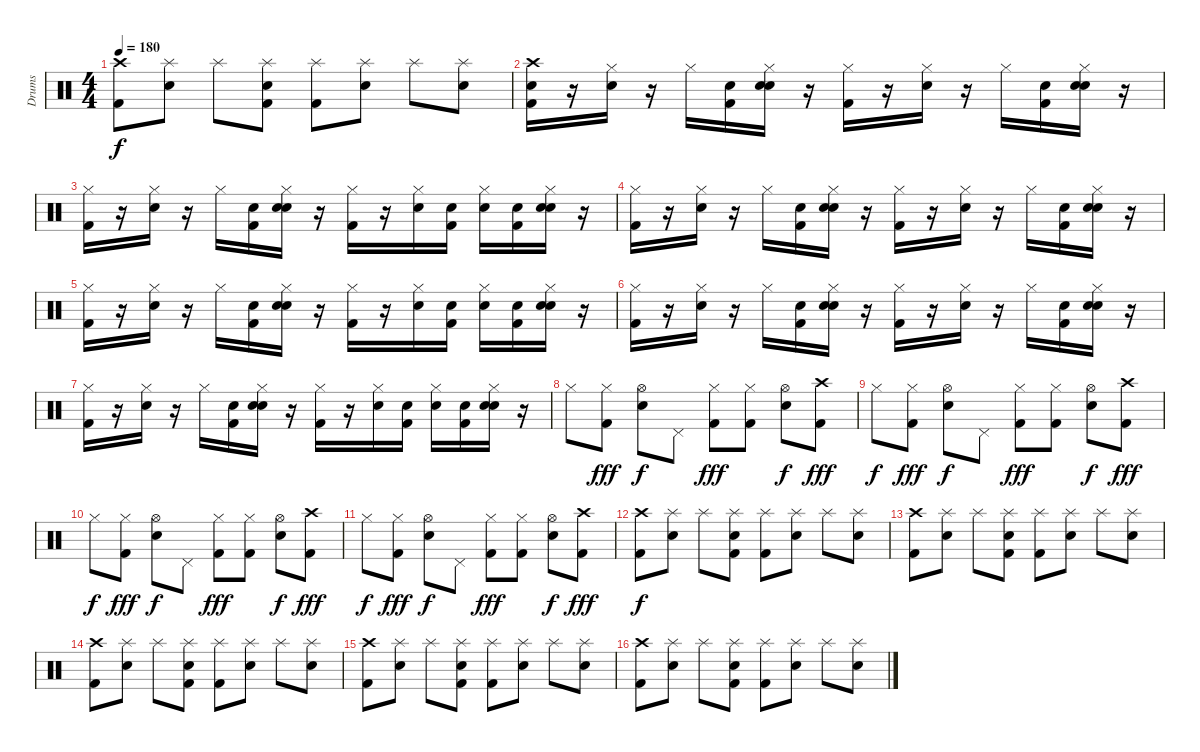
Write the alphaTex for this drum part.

\track ("Drums" "Drums") {instrument percussion}
\staff {score}
\articulation defaults
\ts (4 4)
\tempo 180
\clef neutral
\ks c
("Crash high (hit)" "Kick (hit) 2").8{dy f} ("Splash (hit)" "Snare (hit) 2").8 "Splash (hit)".8 ("Splash (hit)" "Snare (hit) 2" "Kick (hit) 2").8 ("Splash (hit)" "Kick (hit) 2").8 ("Splash (hit)" "Snare (hit) 2").8 "Splash (hit)".8 ("Splash (hit)" "Snare (hit) 2").8 |
("Snare (hit)" "Kick (hit) 2" "Crash high (hit)").16 r.16 ("Snare (hit) 2" "Hi-Hat (closed)").16 r.16 "Hi-Hat (closed)".16 ("Snare (hit)" "Kick (hit) 2").16 ("Snare (hit)" "Snare (hit) 2" "Hi-Hat (closed)").16 r.16 ("Kick (hit) 2" "Hi-Hat (closed)").16 r.16 ("Snare (hit) 2" "Hi-Hat (closed)").16 r.16 "Hi-Hat (closed)".16 ("Snare (hit)" "Kick (hit) 2").16 ("Snare (hit)" "Snare (hit) 2" "Hi-Hat (closed)").16 r.16 |
("Kick (hit) 2" "Hi-Hat (closed)").16 r.16 ("Snare (hit) 2" "Hi-Hat (closed)").16 r.16 "Hi-Hat (closed)".16 ("Snare (hit)" "Kick (hit) 2").16 ("Snare (hit)" "Snare (hit) 2" "Hi-Hat (closed)").16 r.16 ("Kick (hit) 2" "Hi-Hat (closed)").16 r.16 ("Snare (hit) 2" "Hi-Hat (closed)").16 ("Snare (hit)" "Kick (hit) 2").16 ("Snare (hit)" "Hi-Hat (closed)").16 ("Snare (hit)" "Kick (hit) 2").16 ("Snare (hit)" "Snare (hit) 2" "Hi-Hat (closed)").16 r.16 |
("Kick (hit) 2" "Hi-Hat (closed)").16 r.16 ("Snare (hit) 2" "Hi-Hat (closed)").16 r.16 "Hi-Hat (closed)".16 ("Snare (hit)" "Kick (hit) 2").16 ("Snare (hit)" "Snare (hit) 2" "Hi-Hat (closed)").16 r.16 ("Kick (hit) 2" "Hi-Hat (closed)").16 r.16 ("Snare (hit) 2" "Hi-Hat (closed)").16 r.16 "Hi-Hat (closed)".16 ("Snare (hit)" "Kick (hit) 2").16 ("Snare (hit)" "Snare (hit) 2" "Hi-Hat (closed)").16 r.16 |
("Hi-Hat (closed)" "Kick (hit) 2").16 r.16 ("Snare (hit) 2" "Hi-Hat (closed)").16 r.16 "Hi-Hat (closed)".16 ("Snare (hit)" "Kick (hit) 2").16 ("Snare (hit)" "Snare (hit) 2" "Hi-Hat (closed)").16 r.16 ("Kick (hit) 2" "Hi-Hat (closed)").16 r.16 ("Snare (hit) 2" "Hi-Hat (closed)").16 ("Snare (hit)" "Kick (hit) 2").16 ("Snare (hit)" "Hi-Hat (closed)").16 ("Snare (hit)" "Kick (hit) 2").16 ("Snare (hit)" "Snare (hit) 2" "Hi-Hat (closed)").16 r.16 |
("Kick (hit) 2" "Hi-Hat (closed)").16 r.16 ("Snare (hit) 2" "Hi-Hat (closed)").16 r.16 "Hi-Hat (closed)".16 ("Snare (hit)" "Kick (hit) 2").16 ("Snare (hit)" "Snare (hit) 2" "Hi-Hat (closed)").16 r.16 ("Kick (hit) 2" "Hi-Hat (closed)").16 r.16 ("Snare (hit) 2" "Hi-Hat (closed)").16 r.16 "Hi-Hat (closed)".16 ("Snare (hit)" "Kick (hit) 2").16 ("Snare (hit)" "Snare (hit) 2" "Hi-Hat (closed)").16 r.16 |
("Hi-Hat (closed)" "Kick (hit) 2").16 r.16 ("Snare (hit) 2" "Hi-Hat (closed)").16 r.16 "Hi-Hat (closed)".16 ("Snare (hit)" "Kick (hit) 2").16 ("Snare (hit)" "Snare (hit) 2" "Hi-Hat (closed)").16 r.16 ("Kick (hit) 2" "Hi-Hat (closed)").16 r.16 ("Snare (hit) 2" "Hi-Hat (closed)").16 ("Snare (hit)" "Kick (hit) 2").16 ("Snare (hit)" "Hi-Hat (closed)").16 ("Snare (hit)" "Kick (hit) 2").16 ("Snare (hit)" "Snare (hit) 2" "Hi-Hat (closed)").16 r.16 |
"Hi-Hat (closed)".8 ("Hi-Hat (closed)" "Kick (hit) 2").8{dy fff} ("Hi-Hat (open)" "Electric Snare (hit)").8{dy f} "Pedal Hi-Hat (hit)".8 ("Hi-Hat (closed)" "Kick (hit) 2").8{dy fff} ("Hi-Hat (closed)" "Kick (hit) 2").8 ("Hi-Hat (open)" "Electric Snare (hit)").8{dy f} ("Crash high (hit)" "Kick (hit) 2").8{dy fff} |
"Hi-Hat (closed)".8{dy f} ("Hi-Hat (closed)" "Kick (hit) 2").8{dy fff} ("Hi-Hat (open)" "Electric Snare (hit)").8{dy f} "Pedal Hi-Hat (hit)".8 ("Hi-Hat (closed)" "Kick (hit) 2").8{dy fff} ("Hi-Hat (closed)" "Kick (hit) 2").8 ("Hi-Hat (open)" "Electric Snare (hit)").8{dy f} ("Crash high (hit)" "Kick (hit) 2").8{dy fff} |
"Hi-Hat (closed)".8{dy f} ("Hi-Hat (closed)" "Kick (hit) 2").8{dy fff} ("Hi-Hat (open)" "Electric Snare (hit)").8{dy f} "Pedal Hi-Hat (hit)".8 ("Hi-Hat (closed)" "Kick (hit) 2").8{dy fff} ("Hi-Hat (closed)" "Kick (hit) 2").8 ("Hi-Hat (open)" "Electric Snare (hit)").8{dy f} ("Crash high (hit)" "Kick (hit) 2").8{dy fff} |
"Hi-Hat (closed)".8{dy f} ("Hi-Hat (closed)" "Kick (hit) 2").8{dy fff} ("Hi-Hat (open)" "Electric Snare (hit)").8{dy f} "Pedal Hi-Hat (hit)".8 ("Hi-Hat (closed)" "Kick (hit) 2").8{dy fff} ("Hi-Hat (closed)" "Kick (hit) 2").8 ("Hi-Hat (open)" "Electric Snare (hit)").8{dy f} ("Crash high (hit)" "Kick (hit) 2").8{dy fff} |
("Crash high (hit)" "Kick (hit) 2").8{dy f} ("Splash (hit)" "Snare (hit) 2").8 "Splash (hit)".8 ("Splash (hit)" "Snare (hit) 2" "Kick (hit) 2").8 ("Splash (hit)" "Kick (hit) 2").8 ("Splash (hit)" "Snare (hit) 2").8 "Splash (hit)".8 ("Splash (hit)" "Snare (hit) 2").8 |
("Crash high (hit)" "Kick (hit) 2").8 ("Splash (hit)" "Snare (hit) 2").8 "Splash (hit)".8 ("Splash (hit)" "Snare (hit) 2" "Kick (hit) 2").8 ("Splash (hit)" "Kick (hit) 2").8 ("Splash (hit)" "Snare (hit) 2").8 "Splash (hit)".8 ("Splash (hit)" "Snare (hit) 2").8 |
("Crash high (hit)" "Kick (hit) 2").8 ("Splash (hit)" "Snare (hit) 2").8 "Splash (hit)".8 ("Splash (hit)" "Snare (hit) 2" "Kick (hit) 2").8 ("Splash (hit)" "Kick (hit) 2").8 ("Splash (hit)" "Snare (hit) 2").8 "Splash (hit)".8 ("Splash (hit)" "Snare (hit) 2").8 |
("Crash high (hit)" "Kick (hit) 2").8 ("Splash (hit)" "Snare (hit) 2").8 "Splash (hit)".8 ("Splash (hit)" "Snare (hit) 2" "Kick (hit) 2").8 ("Splash (hit)" "Kick (hit) 2").8 ("Splash (hit)" "Snare (hit) 2").8 "Splash (hit)".8 ("Splash (hit)" "Snare (hit) 2").8 |
("Crash high (hit)" "Kick (hit) 2").8 ("Splash (hit)" "Snare (hit) 2").8 "Splash (hit)".8 ("Splash (hit)" "Snare (hit) 2" "Kick (hit) 2").8 ("Splash (hit)" "Kick (hit) 2").8 ("Splash (hit)" "Snare (hit) 2").8 "Splash (hit)".8 ("Splash (hit)" "Snare (hit) 2").8
